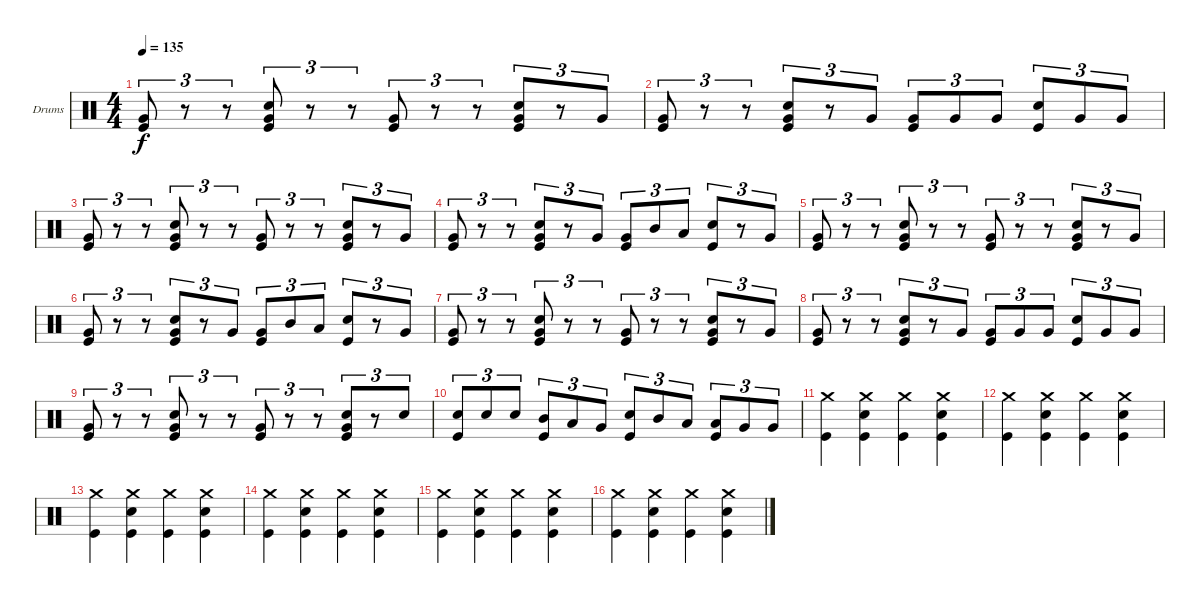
\bracketExtendMode groupsimilarinstruments
\firstSystemTrackNameOrientation horizontal
\otherSystemsTrackNameOrientation horizontal
\track ("Drumkit (Christoph)" "Drums") {instrument percussion}
\staff {score}
\articulation defaults
\ts (4 4)
\tempo 135
\clef neutral
\ks c
("Very Low Tom (hit)" "Kick (hit)").8{tu (3 2) dy f} r.8{tu (3 2)} r.8{tu (3 2)} ("Snare (hit) 2" "Very Low Tom (hit)" "Kick (hit)").8{tu (3 2)} r.8{tu (3 2)} r.8{tu (3 2)} ("Very Low Tom (hit)" "Kick (hit)").8{tu (3 2)} r.8{tu (3 2)} r.8{tu (3 2)} ("Snare (hit) 2" "Very Low Tom (hit)" "Kick (hit)").8{tu (3 2)} r.8{tu (3 2)} "Very Low Tom (hit)".8{tu (3 2)} |
("Very Low Tom (hit)" "Kick (hit)").8{tu (3 2)} r.8{tu (3 2)} r.8{tu (3 2)} ("Snare (hit) 2" "Very Low Tom (hit)" "Kick (hit)").8{tu (3 2)} r.8{tu (3 2)} "Very Low Tom (hit)".8{tu (3 2)} ("Very Low Tom (hit)" "Kick (hit)").8{tu (3 2)} "Very Low Tom (hit)".8{tu (3 2)} "Very Low Tom (hit)".8{tu (3 2)} ("Snare (hit) 2" "Kick (hit)").8{tu (3 2)} "Very Low Tom (hit)".8{tu (3 2)} "Very Low Tom (hit)".8{tu (3 2)} |
("Very Low Tom (hit)" "Kick (hit)").8{tu (3 2)} r.8{tu (3 2)} r.8{tu (3 2)} ("Snare (hit) 2" "Very Low Tom (hit)" "Kick (hit)").8{tu (3 2)} r.8{tu (3 2)} r.8{tu (3 2)} ("Very Low Tom (hit)" "Kick (hit)").8{tu (3 2)} r.8{tu (3 2)} r.8{tu (3 2)} ("Snare (hit) 2" "Very Low Tom (hit)" "Kick (hit)").8{tu (3 2)} r.8{tu (3 2)} "Very Low Tom (hit)".8{tu (3 2)} |
("Very Low Tom (hit)" "Kick (hit)").8{tu (3 2)} r.8{tu (3 2)} r.8{tu (3 2)} ("Snare (hit) 2" "Very Low Tom (hit)" "Kick (hit)").8{tu (3 2)} r.8{tu (3 2)} "Very Low Tom (hit)".8{tu (3 2)} ("Very Low Tom (hit)" "Kick (hit)").8{tu (3 2)} "Mid Tom (hit)".8{tu (3 2)} "Low Tom (hit)".8{tu (3 2)} ("Snare (hit) 2" "Kick (hit)").8{tu (3 2)} r.8{tu (3 2)} "Very Low Tom (hit)".8{tu (3 2)} |
("Very Low Tom (hit)" "Kick (hit)").8{tu (3 2)} r.8{tu (3 2)} r.8{tu (3 2)} ("Snare (hit) 2" "Very Low Tom (hit)" "Kick (hit)").8{tu (3 2)} r.8{tu (3 2)} r.8{tu (3 2)} ("Very Low Tom (hit)" "Kick (hit)").8{tu (3 2)} r.8{tu (3 2)} r.8{tu (3 2)} ("Snare (hit) 2" "Very Low Tom (hit)" "Kick (hit)").8{tu (3 2)} r.8{tu (3 2)} "Very Low Tom (hit)".8{tu (3 2)} |
("Very Low Tom (hit)" "Kick (hit)").8{tu (3 2)} r.8{tu (3 2)} r.8{tu (3 2)} ("Snare (hit) 2" "Very Low Tom (hit)" "Kick (hit)").8{tu (3 2)} r.8{tu (3 2)} "Very Low Tom (hit)".8{tu (3 2)} ("Very Low Tom (hit)" "Kick (hit)").8{tu (3 2)} "Mid Tom (hit)".8{tu (3 2)} "Low Tom (hit)".8{tu (3 2)} ("Snare (hit) 2" "Kick (hit)").8{tu (3 2)} r.8{tu (3 2)} "Very Low Tom (hit)".8{tu (3 2)} |
("Very Low Tom (hit)" "Kick (hit)").8{tu (3 2)} r.8{tu (3 2)} r.8{tu (3 2)} ("Snare (hit) 2" "Very Low Tom (hit)" "Kick (hit)").8{tu (3 2)} r.8{tu (3 2)} r.8{tu (3 2)} ("Very Low Tom (hit)" "Kick (hit)").8{tu (3 2)} r.8{tu (3 2)} r.8{tu (3 2)} ("Snare (hit) 2" "Very Low Tom (hit)" "Kick (hit)").8{tu (3 2)} r.8{tu (3 2)} "Very Low Tom (hit)".8{tu (3 2)} |
("Very Low Tom (hit)" "Kick (hit)").8{tu (3 2)} r.8{tu (3 2)} r.8{tu (3 2)} ("Snare (hit) 2" "Very Low Tom (hit)" "Kick (hit)").8{tu (3 2)} r.8{tu (3 2)} "Very Low Tom (hit)".8{tu (3 2)} ("Very Low Tom (hit)" "Kick (hit)").8{tu (3 2)} "Very Low Tom (hit)".8{tu (3 2)} "Very Low Tom (hit)".8{tu (3 2)} ("Snare (hit) 2" "Kick (hit)").8{tu (3 2)} "Very Low Tom (hit)".8{tu (3 2)} "Very Low Tom (hit)".8{tu (3 2)} |
("Very Low Tom (hit)" "Kick (hit)").8{tu (3 2)} r.8{tu (3 2)} r.8{tu (3 2)} ("Snare (hit) 2" "Very Low Tom (hit)" "Kick (hit)").8{tu (3 2)} r.8{tu (3 2)} r.8{tu (3 2)} ("Very Low Tom (hit)" "Kick (hit)").8{tu (3 2)} r.8{tu (3 2)} r.8{tu (3 2)} ("Snare (hit) 2" "Very Low Tom (hit)" "Kick (hit)").8{tu (3 2)} r.8{tu (3 2)} "Snare (hit) 2".8{tu (3 2)} |
("Snare (hit) 2" "Kick (hit)").8{tu (3 2)} "Snare (hit) 2".8{tu (3 2)} "Snare (hit) 2".8{tu (3 2)} ("Mid Tom (hit)" "Kick (hit)").8{tu (3 2)} "Low Tom (hit)".8{tu (3 2)} "Very Low Tom (hit)".8{tu (3 2)} ("Snare (hit) 2" "Kick (hit)").8{tu (3 2)} "Mid Tom (hit)".8{tu (3 2)} "Low Tom (hit)".8{tu (3 2)} ("Low Tom (hit)" "Kick (hit)").8{tu (3 2)} "Very Low Tom (hit)".8{tu (3 2)} "Very Low Tom (hit)".8{tu (3 2)} |
("Crash medium (hit)" "Kick (hit)").4 ("Crash medium (hit)" "Snare (hit) 2" "Kick (hit)").4 ("Crash medium (hit)" "Kick (hit)").4 ("Crash medium (hit)" "Snare (hit) 2" "Kick (hit)").4 |
("Crash medium (hit)" "Kick (hit)").4 ("Crash medium (hit)" "Snare (hit) 2" "Kick (hit)").4 ("Crash medium (hit)" "Kick (hit)").4 ("Crash medium (hit)" "Snare (hit) 2" "Kick (hit)").4 |
("Crash medium (hit)" "Kick (hit)").4 ("Crash medium (hit)" "Snare (hit) 2" "Kick (hit)").4 ("Crash medium (hit)" "Kick (hit)").4 ("Crash medium (hit)" "Snare (hit) 2" "Kick (hit)").4 |
("Crash medium (hit)" "Kick (hit)").4 ("Crash medium (hit)" "Snare (hit) 2" "Kick (hit)").4 ("Crash medium (hit)" "Kick (hit)").4 ("Crash medium (hit)" "Snare (hit) 2" "Kick (hit)").4 |
("Crash medium (hit)" "Kick (hit)").4 ("Crash medium (hit)" "Snare (hit) 2" "Kick (hit)").4 ("Crash medium (hit)" "Kick (hit)").4 ("Crash medium (hit)" "Snare (hit) 2" "Kick (hit)").4 |
("Crash medium (hit)" "Kick (hit)").4 ("Crash medium (hit)" "Snare (hit) 2" "Kick (hit)").4 ("Crash medium (hit)" "Kick (hit)").4 ("Crash medium (hit)" "Snare (hit) 2" "Kick (hit)").4
